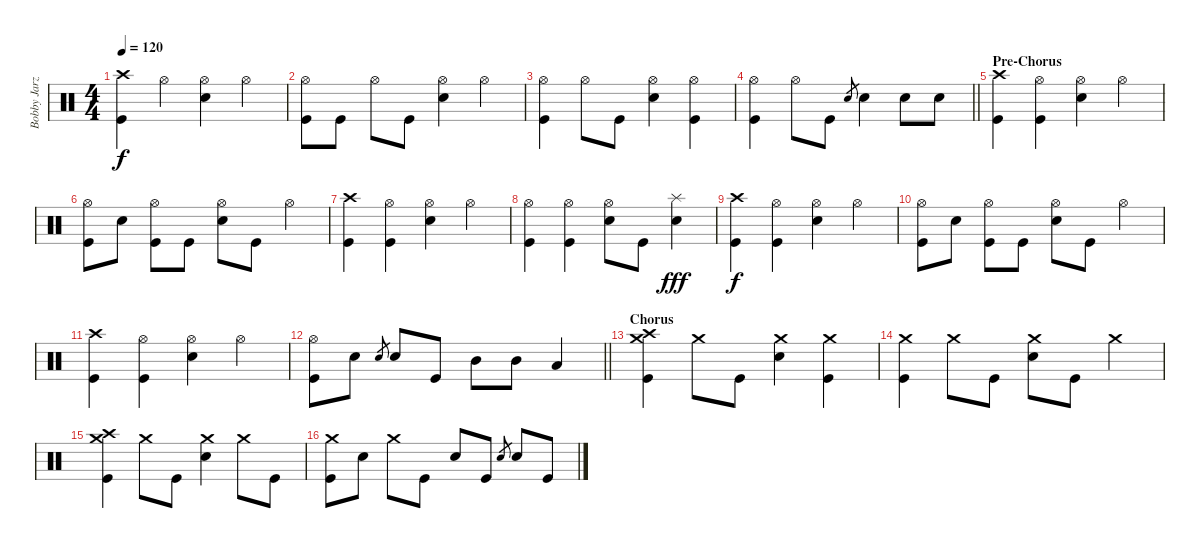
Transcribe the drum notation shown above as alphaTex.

\track ("Bobby Jarzombek" "Bobby Jarz") {instrument percussion}
\staff {score}
\articulation defaults
\ts (4 4)
\tempo 120
\clef neutral
\ks c
("Crash high (hit)" "Kick (hit)").4{dy f} "Hi-Hat (open)".4 ("Hi-Hat (open)" "Electric Snare (hit)").4 "Hi-Hat (open)".4 |
("Hi-Hat (open)" "Kick (hit)").8 "Kick (hit)".8 "Hi-Hat (open)".8 "Kick (hit)".8 ("Hi-Hat (open)" "Electric Snare (hit)").4 "Hi-Hat (open)".4 |
("Hi-Hat (open)" "Kick (hit)").4 "Hi-Hat (open)".8 "Kick (hit)".8 ("Hi-Hat (open)" "Electric Snare (hit)").4 ("Hi-Hat (open)" "Kick (hit)").4 |
\barLineRight lightlight
("Hi-Hat (open)" "Kick (hit)").4 "Hi-Hat (open)".8 "Kick (hit)".8 "Electric Snare (hit)".8{gr} "Electric Snare (hit)".4 "Electric Snare (hit)".8 "Electric Snare (hit)".8 |
\section ("" "Pre-Chorus")
("Crash high (hit)" "Kick (hit)").4 ("Hi-Hat (open)" "Kick (hit)").4 ("Hi-Hat (open)" "Electric Snare (hit)").4 "Hi-Hat (open)".4 |
("Hi-Hat (open)" "Kick (hit)").8 "Electric Snare (hit)".8 ("Hi-Hat (open)" "Kick (hit)").8 "Kick (hit)".8 ("Hi-Hat (open)" "Electric Snare (hit)").8 "Kick (hit)".8 "Hi-Hat (open)".4 |
("Crash high (hit)" "Kick (hit)").4 ("Hi-Hat (open)" "Kick (hit)").4 ("Hi-Hat (open)" "Electric Snare (hit)").4 "Hi-Hat (open)".4 |
("Hi-Hat (open)" "Kick (hit)").4 ("Hi-Hat (open)" "Kick (hit)").4 ("Hi-Hat (open)" "Electric Snare (hit)").8 "Kick (hit)".8 ("Splash (hit)" "Electric Snare (hit)").4{dy fff} |
("Crash high (hit)" "Kick (hit)").4{dy f} ("Hi-Hat (open)" "Kick (hit)").4 ("Hi-Hat (open)" "Electric Snare (hit)").4 "Hi-Hat (open)".4 |
("Hi-Hat (open)" "Kick (hit)").8 "Electric Snare (hit)".8 ("Hi-Hat (open)" "Kick (hit)").8 "Kick (hit)".8 ("Hi-Hat (open)" "Electric Snare (hit)").8 "Kick (hit)".8 "Hi-Hat (open)".4 |
("Crash high (hit)" "Kick (hit)").4 ("Hi-Hat (open)" "Kick (hit)").4 ("Hi-Hat (open)" "Electric Snare (hit)").4 "Hi-Hat (open)".4 |
\barLineRight lightlight
("Hi-Hat (open)" "Kick (hit)").8 "Electric Snare (hit)".8 "Electric Snare (hit)".8{gr} "Electric Snare (hit)".8 "Kick (hit)".8 "Mid Tom (hit)".8 "Mid Tom (hit)".8 "Low Tom (hit)".4 |
\section ("" "Chorus")
("Crash high (hit)" "Crash medium (hit)" "Kick (hit)").4 "Crash medium (hit)".8 "Kick (hit)".8 ("Crash medium (hit)" "Electric Snare (hit)").4 ("Crash medium (hit)" "Kick (hit)").4 |
("Crash medium (hit)" "Kick (hit)").4 "Crash medium (hit)".8 "Kick (hit)".8 ("Crash medium (hit)" "Electric Snare (hit)").8 "Kick (hit)".8 "Crash medium (hit)".4 |
("Crash high (hit)" "Crash medium (hit)" "Kick (hit)").4 "Crash medium (hit)".8 "Kick (hit)".8 ("Crash medium (hit)" "Electric Snare (hit)").4 "Crash medium (hit)".8 "Kick (hit)".8 |
("Crash medium (hit)" "Kick (hit)").8 "Electric Snare (hit)".8 "Crash medium (hit)".8 "Kick (hit)".8 "Electric Snare (hit)".8 "Kick (hit)".8 "Electric Snare (hit)".8{gr} "Electric Snare (hit)".8 "Kick (hit)".8
